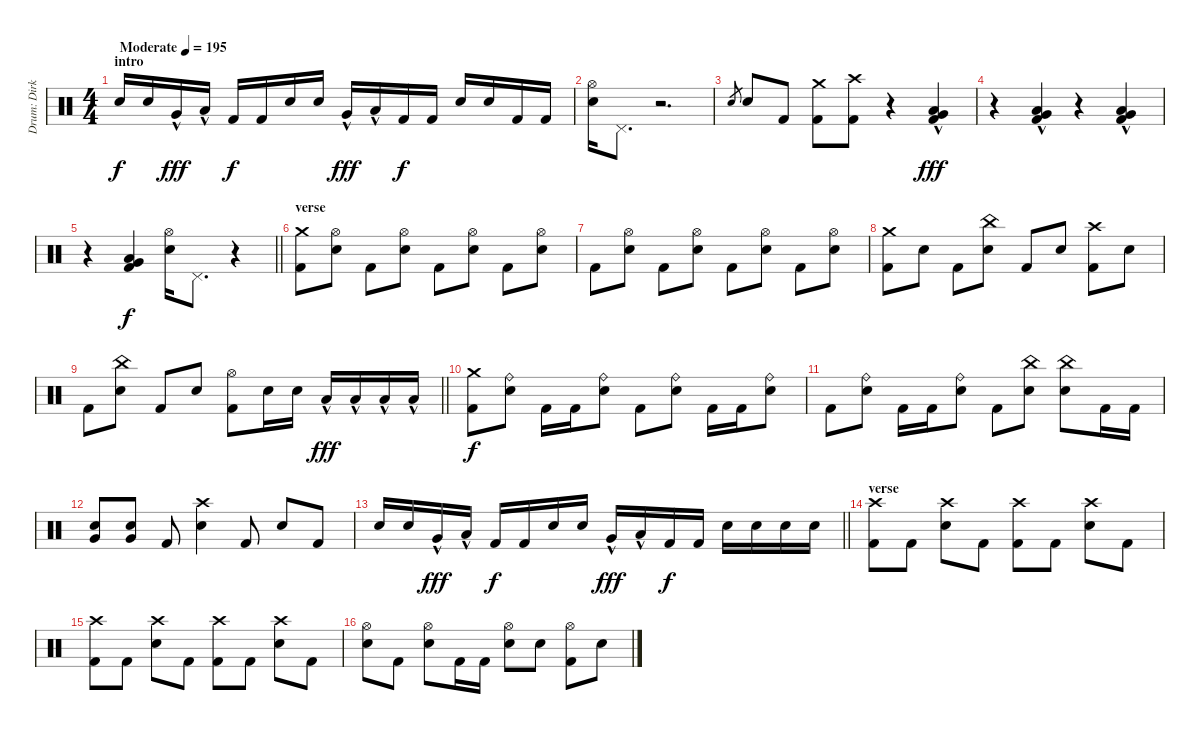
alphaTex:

\track ("Drum: Dirk" "Drum: Dirk") {instrument percussion}
\staff {score}
\articulation defaults
\ts (4 4)
\section ("" "intro")
\tempo (195 "Moderate")
\clef neutral
\ks c "Electric Snare (hit)".16{dy f} "Electric Snare (hit)".16 "Very Low Tom (hit)"{hac}.16{dy fff} "Low Tom (hit)"{hac}.16 "Kick (hit) 2".16{dy f} "Kick (hit) 2".16 "Electric Snare (hit)".16 "Electric Snare (hit)".16 "Very Low Tom (hit)"{hac}.16{dy fff} "Low Tom (hit)"{hac}.16 "Kick (hit) 2".16{dy f} "Kick (hit) 2".16 "Electric Snare (hit)".16 "Electric Snare (hit)".16 "Kick (hit) 2".16 "Kick (hit) 2".16
|
("Hi-Hat (open)" "Electric Snare (hit)").16 "Pedal Hi-Hat (hit)".8{d} r.2{d} |
"Electric Snare (hit)".8{gr} "Electric Snare (hit)".8 "Kick (hit) 2".8 ("Crash medium (hit)" "Kick (hit) 2").8 ("Crash high (hit)" "Kick (hit) 2").8 r.4 ("Very Low Tom (hit)"{hac} "Low Floor Tom (hit)"{hac} "Kick (hit) 2").4{dy fff} |
r.4 ("Very Low Tom (hit)"{hac} "Low Floor Tom (hit)"{hac} "Kick (hit) 2").4 r.4 ("Very Low Tom (hit)"{hac} "Low Floor Tom (hit)"{hac} "Kick (hit) 2").4 |
\barLineRight lightlight
r.4 ("Very Low Tom (hit)" "Low Floor Tom (hit)" "Kick (hit) 2").4{dy f} ("Hi-Hat (open)" "Electric Snare (hit)").16 "Pedal Hi-Hat (hit)".8{d} r.4 |
\section ("" "verse")
("Crash medium (hit)" "Kick (hit) 2").8 ("Hi-Hat (open)" "Electric Snare (hit)").8 "Kick (hit) 2".8 ("Hi-Hat (open)" "Electric Snare (hit)").8 "Kick (hit) 2".8 ("Hi-Hat (open)" "Electric Snare (hit)").8 "Kick (hit) 2".8 ("Hi-Hat (open)" "Electric Snare (hit)").8 |
"Kick (hit) 2".8 ("Hi-Hat (open)" "Electric Snare (hit)").8 "Kick (hit) 2".8 ("Hi-Hat (open)" "Electric Snare (hit)").8 "Kick (hit) 2".8 ("Hi-Hat (open)" "Electric Snare (hit)").8 "Kick (hit) 2".8 ("Hi-Hat (open)" "Electric Snare (hit)").8 |
("Crash medium (hit)" "Kick (hit) 2").8 "Electric Snare (hit)".8 "Kick (hit) 2".8 ("China (hit)" "Electric Snare (hit)").8 "Kick (hit) 2".8 "Electric Snare (hit)".8 ("Crash high (hit)" "Kick (hit) 2").8 "Electric Snare (hit)".8 |
\barLineRight lightlight "Kick (hit) 2".8
("China (hit)" "Electric Snare (hit)").8 "Kick (hit) 2".8 "Electric Snare (hit)".8 ("Hi-Hat (open)" "Kick (hit) 2").8 "Electric Snare (hit)".16 "Electric Snare (hit)".16 "Low Tom (hit)"{hac}.16{dy fff} "Low Tom (hit)"{hac}.16 "Low Tom (hit)"{hac}.16 "Low Tom (hit)"{hac}.16 |
\section ("" "")
("Crash medium (hit)" "Kick (hit) 2").8{dy f} ("Ride (bell)" "Electric Snare (hit)").8 "Kick (hit) 2".16 "Kick (hit) 2".16 ("Ride (bell)" "Electric Snare (hit)").8 "Kick (hit) 2".8 ("Ride (bell)" "Electric Snare (hit)").8 "Kick (hit) 2".16 "Kick (hit) 2".16 ("Ride (bell)" "Electric Snare (hit)").8 |
"Kick (hit) 2".8 ("Ride (bell)" "Electric Snare (hit)").8 "Kick (hit) 2".16 "Kick (hit) 2".16 ("Ride (bell)" "Electric Snare (hit)").8 "Kick (hit) 2".8 ("China (hit)" "Electric Snare (hit)").8 ("China (hit)" "Electric Snare (hit)").8 "Kick (hit) 2".16 "Kick (hit) 2".16 |
("Electric Snare (hit)" "Very Low Tom (hit)").8 ("Electric Snare (hit)" "Very Low Tom (hit)").8 "Kick (hit) 2".8 ("Crash high (hit)" "Electric Snare (hit)").4 "Kick (hit) 2".8 "Electric Snare (hit)".8 "Kick (hit) 2".8 |
\barLineRight lightlight "Electric Snare (hit)".16 "Electric Snare (hit)".16 "Very Low Tom (hit)"{hac}.16{dy fff} "Low Tom (hit)"{hac}.16 "Kick (hit) 2".16{dy f} "Kick (hit) 2".16 "Electric Snare (hit)".16 "Electric Snare (hit)".16 "Very Low Tom (hit)"{hac}.16{dy fff} "Low Tom (hit)"{hac}.16 "Kick (hit) 2".16{dy f} "Kick (hit) 2".16 "Electric Snare (hit)".16 "Electric Snare (hit)".16 "Electric Snare (hit)".16 "Electric Snare (hit)".16
|
\section ("" "verse")
("Crash high (hit)" "Kick (hit) 2").8 "Kick (hit) 2".8 ("Crash high (hit)" "Electric Snare (hit)").8 "Kick (hit) 2".8 ("Crash high (hit)" "Kick (hit) 2").8 "Kick (hit) 2".8 ("Crash high (hit)" "Electric Snare (hit)").8 "Kick (hit) 2".8 |
("Crash high (hit)" "Kick (hit) 2").8 "Kick (hit) 2".8 ("Crash high (hit)" "Electric Snare (hit)").8 "Kick (hit) 2".8 ("Crash high (hit)" "Kick (hit) 2").8 "Kick (hit) 2".8 ("Crash high (hit)" "Electric Snare (hit)").8 "Kick (hit) 2".8 |
("Hi-Hat (open)" "Electric Snare (hit)").8 "Kick (hit) 2".8 ("Hi-Hat (open)" "Electric Snare (hit)").8 "Kick (hit) 2".16 "Kick (hit) 2".16 ("Hi-Hat (open)" "Electric Snare (hit)").8 "Electric Snare (hit)".8 ("Hi-Hat (open)" "Kick (hit) 2").8 "Electric Snare (hit)".8
